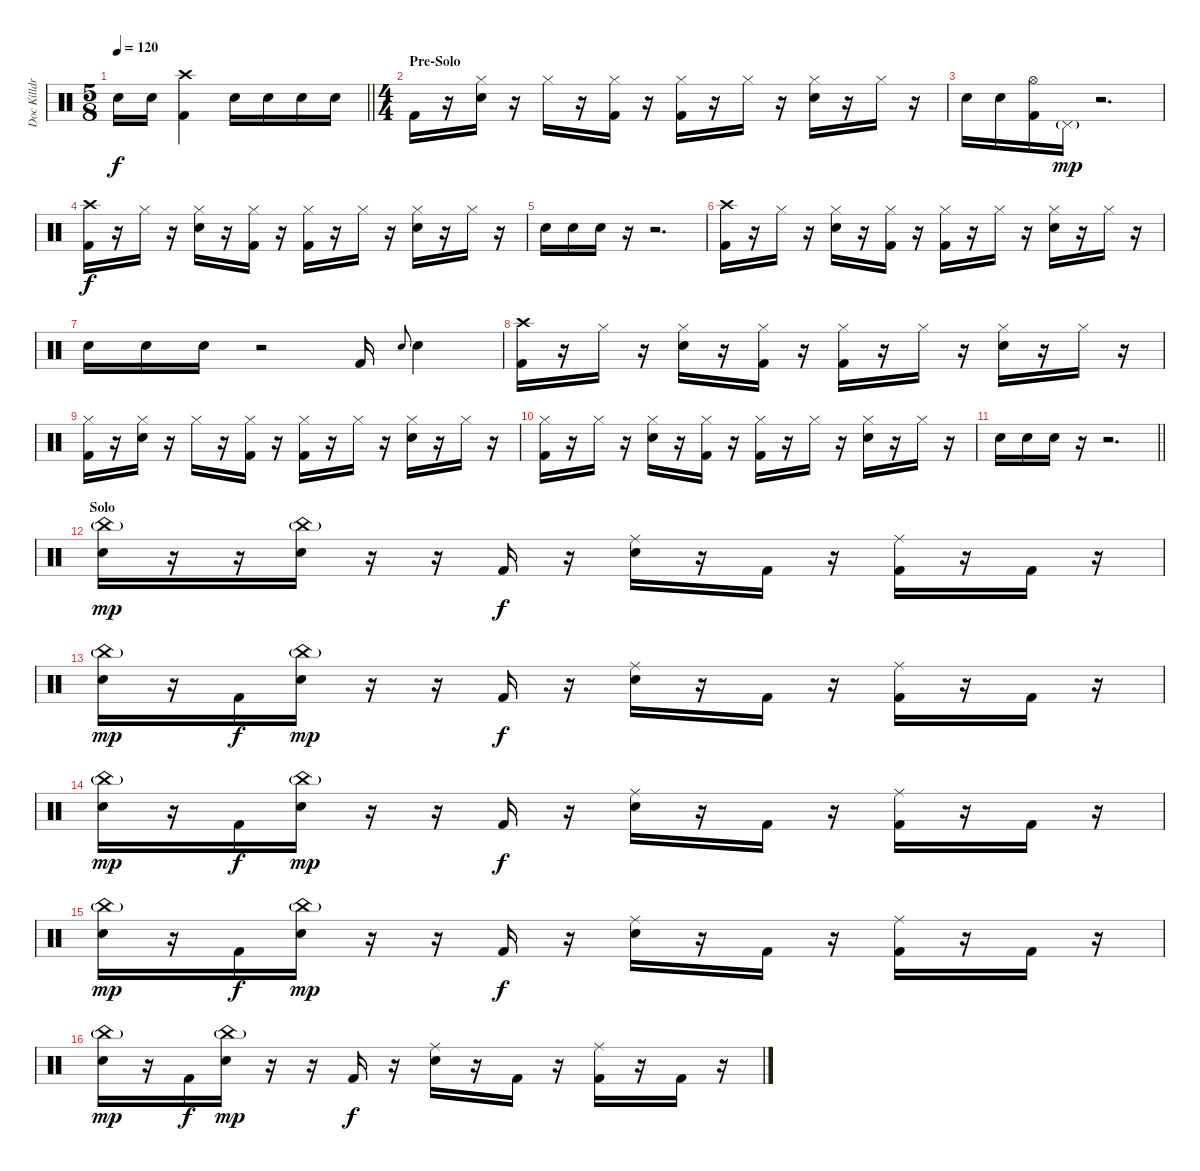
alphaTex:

\track ("Doc Killdrums (What else?)" "Doc Killdr") {instrument percussion}
\staff {score}
\articulation defaults
\ts (5 8)
\tempo 120
\clef neutral
\barLineRight lightlight
\ks c "Snare (hit) 2".16{dy f} "Snare (hit) 2".16
("Kick (hit) 2" "Crash high (hit)").4 "Snare (hit) 2".16 "Snare (hit) 2".16 "Snare (hit) 2".16 "Snare (hit) 2".16 |
\ts (4 4)
\section ("" "Pre-Solo")
"Kick (hit) 2".16 r.16 ("Snare (hit) 2" "Hi-Hat (closed)").16 r.16 "Hi-Hat (closed)".16 r.16 ("Kick (hit) 2" "Hi-Hat (closed)").16 r.16 ("Kick (hit) 2" "Hi-Hat (closed)").16 r.16 "Hi-Hat (closed)".16 r.16 ("Snare (hit) 2" "Hi-Hat (closed)").16 r.16 "Hi-Hat (closed)".16 r.16 |
"Snare (hit) 2".16 "Snare (hit) 2".16 ("Kick (hit) 2" "Hi-Hat (open)").16 "Pedal Hi-Hat (hit)"{g}.16{dy mp} r.2{d} |
("Kick (hit) 2" "Crash high (hit)").16{dy f} r.16 "Hi-Hat (closed)".16 r.16 ("Snare (hit) 2" "Hi-Hat (closed)").16 r.16 ("Kick (hit) 2" "Hi-Hat (closed)").16 r.16 ("Kick (hit) 2" "Hi-Hat (closed)").16 r.16 "Hi-Hat (closed)".16 r.16 ("Snare (hit) 2" "Hi-Hat (closed)").16 r.16 "Hi-Hat (closed)".16 r.16 |
"Snare (hit) 2".16 "Snare (hit) 2".16 "Snare (hit) 2".16 r.16 r.2{d} |
("Kick (hit) 2" "Crash high (hit)").16 r.16 "Hi-Hat (closed)".16 r.16 ("Snare (hit) 2" "Hi-Hat (closed)").16 r.16 ("Kick (hit) 2" "Hi-Hat (closed)").16 r.16 ("Kick (hit) 2" "Hi-Hat (closed)").16 r.16 "Hi-Hat (closed)".16 r.16 ("Snare (hit) 2" "Hi-Hat (closed)").16 r.16 "Hi-Hat (closed)".16 r.16 |
"Snare (hit) 2".16 "Snare (hit) 2".16 "Snare (hit) 2".16 r.2 "Kick (hit) 2".16 "Snare (hit) 2".8{gr onbeat} "Snare (hit) 2".4 |
("Kick (hit) 2" "Crash high (hit)").16 r.16 "Hi-Hat (closed)".16 r.16 ("Snare (hit) 2" "Hi-Hat (closed)").16 r.16 ("Kick (hit) 2" "Hi-Hat (closed)").16 r.16 ("Kick (hit) 2" "Hi-Hat (closed)").16 r.16 "Hi-Hat (closed)".16 r.16 ("Snare (hit) 2" "Hi-Hat (closed)").16 r.16 "Hi-Hat (closed)".16 r.16 |
("Kick (hit) 2" "Hi-Hat (closed)").16 r.16 ("Snare (hit) 2" "Hi-Hat (closed)").16 r.16 "Hi-Hat (closed)".16 r.16 ("Kick (hit) 2" "Hi-Hat (closed)").16 r.16 ("Kick (hit) 2" "Hi-Hat (closed)").16 r.16 "Hi-Hat (closed)".16 r.16 ("Snare (hit) 2" "Hi-Hat (closed)").16 r.16 "Hi-Hat (closed)".16 r.16 |
("Kick (hit) 2" "Hi-Hat (closed)").16 r.16 "Hi-Hat (closed)".16 r.16 ("Snare (hit) 2" "Hi-Hat (closed)").16 r.16 ("Kick (hit) 2" "Hi-Hat (closed)").16 r.16 ("Kick (hit) 2" "Hi-Hat (closed)").16 r.16 "Hi-Hat (closed)".16 r.16 ("Snare (hit) 2" "Hi-Hat (closed)").16 r.16 "Hi-Hat (closed)".16 r.16 |
\barLineRight lightlight "Snare (hit) 2".16 "Snare (hit) 2".16 "Snare (hit) 2".16
r.16 r.2{d} |
\section ("" "Solo")
("Snare (hit) 2" "China (hit)"{g}).16{dy mp} r.16 r.16 ("Snare (hit) 2" "China (hit)"{g}).16 r.16 r.16 "Kick (hit) 2".16{dy f} r.16 ("Snare (hit) 2" "Ride (middle)").16 r.16 "Kick (hit) 2".16 r.16 ("Kick (hit) 2" "Ride (middle)").16 r.16 "Kick (hit) 2".16 r.16 |
("Snare (hit) 2" "China (hit)"{g}).16{dy mp} r.16 "Kick (hit) 2".16{dy f} ("Snare (hit) 2" "China (hit)"{g}).16{dy mp} r.16 r.16 "Kick (hit) 2".16{dy f} r.16 ("Snare (hit) 2" "Ride (middle)").16 r.16 "Kick (hit) 2".16 r.16 ("Kick (hit) 2" "Ride (middle)").16 r.16 "Kick (hit) 2".16 r.16 |
("Snare (hit) 2" "China (hit)"{g}).16{dy mp} r.16 "Kick (hit) 2".16{dy f} ("Snare (hit) 2" "China (hit)"{g}).16{dy mp} r.16 r.16 "Kick (hit) 2".16{dy f} r.16 ("Snare (hit) 2" "Ride (middle)").16 r.16 "Kick (hit) 2".16 r.16 ("Kick (hit) 2" "Ride (middle)").16 r.16 "Kick (hit) 2".16 r.16 |
("Snare (hit) 2" "China (hit)"{g}).16{dy mp} r.16 "Kick (hit) 2".16{dy f} ("Snare (hit) 2" "China (hit)"{g}).16{dy mp} r.16 r.16 "Kick (hit) 2".16{dy f} r.16 ("Snare (hit) 2" "Ride (middle)").16 r.16 "Kick (hit) 2".16 r.16 ("Kick (hit) 2" "Ride (middle)").16 r.16 "Kick (hit) 2".16 r.16 |
("Snare (hit) 2" "China (hit)"{g}).16{dy mp} r.16 "Kick (hit) 2".16{dy f} ("Snare (hit) 2" "China (hit)"{g}).16{dy mp} r.16 r.16 "Kick (hit) 2".16{dy f} r.16 ("Snare (hit) 2" "Ride (middle)").16 r.16 "Kick (hit) 2".16 r.16 ("Kick (hit) 2" "Ride (middle)").16 r.16 "Kick (hit) 2".16 r.16
